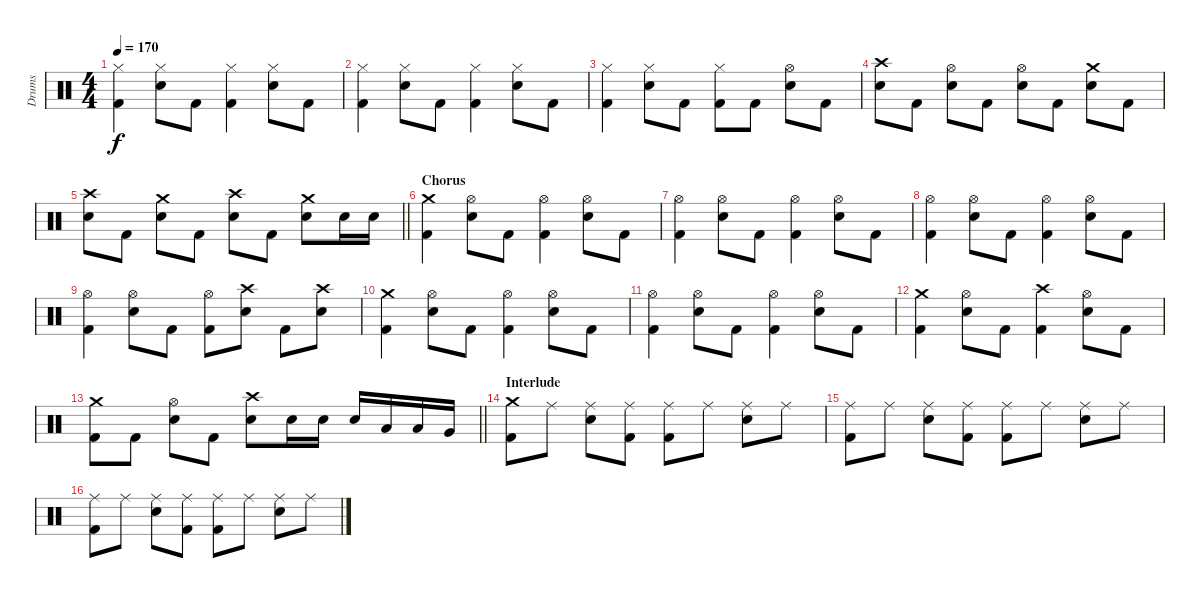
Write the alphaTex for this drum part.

\track ("Drums" "Drums") {instrument percussion}
\staff {score}
\articulation defaults
\ts (4 4)
\tempo 170
\clef neutral
\ks c
("Hi-Hat (closed)" "Kick (hit) 2").4{dy f} ("Hi-Hat (closed)" "Electric Snare (hit)").8 "Kick (hit) 2".8 ("Hi-Hat (closed)" "Kick (hit) 2").4 ("Hi-Hat (closed)" "Electric Snare (hit)").8 "Kick (hit) 2".8 |
("Hi-Hat (closed)" "Kick (hit) 2").4 ("Hi-Hat (closed)" "Electric Snare (hit)").8 "Kick (hit) 2".8 ("Hi-Hat (closed)" "Kick (hit) 2").4 ("Hi-Hat (closed)" "Electric Snare (hit)").8 "Kick (hit) 2".8 |
("Hi-Hat (closed)" "Kick (hit) 2").4 ("Hi-Hat (closed)" "Electric Snare (hit)").8 "Kick (hit) 2".8 ("Hi-Hat (closed)" "Kick (hit) 2").8 "Kick (hit) 2".8 ("Hi-Hat (open)" "Electric Snare (hit)").8 "Kick (hit) 2".8 |
("Crash high (hit)" "Electric Snare (hit)").8 "Kick (hit) 2".8 ("Hi-Hat (open)" "Electric Snare (hit)").8 "Kick (hit) 2".8 ("Hi-Hat (open)" "Electric Snare (hit)").8 "Kick (hit) 2".8 ("Crash medium (hit)" "Electric Snare (hit)").8 "Kick (hit) 2".8 |
\barLineRight lightlight
("Crash high (hit)" "Electric Snare (hit)").8 "Kick (hit) 2".8 ("Crash medium (hit)" "Electric Snare (hit)").8 "Kick (hit) 2".8 ("Crash high (hit)" "Electric Snare (hit)").8 "Kick (hit) 2".8 ("Crash medium (hit)" "Electric Snare (hit)").8 "Electric Snare (hit)".16 "Electric Snare (hit)".16 |
\section ("" "Chorus")
("Crash medium (hit)" "Kick (hit) 2").4 ("Hi-Hat (open)" "Electric Snare (hit)").8 "Kick (hit) 2".8 ("Hi-Hat (open)" "Kick (hit) 2").4 ("Hi-Hat (open)" "Electric Snare (hit)").8 "Kick (hit) 2".8 |
("Hi-Hat (open)" "Kick (hit) 2").4 ("Hi-Hat (open)" "Electric Snare (hit)").8 "Kick (hit) 2".8 ("Hi-Hat (open)" "Kick (hit) 2").4 ("Hi-Hat (open)" "Electric Snare (hit)").8 "Kick (hit) 2".8 |
("Hi-Hat (open)" "Kick (hit) 2").4 ("Hi-Hat (open)" "Electric Snare (hit)").8 "Kick (hit) 2".8 ("Hi-Hat (open)" "Kick (hit) 2").4 ("Hi-Hat (open)" "Electric Snare (hit)").8 "Kick (hit) 2".8 |
("Hi-Hat (open)" "Kick (hit) 2").4 ("Hi-Hat (open)" "Electric Snare (hit)").8 "Kick (hit) 2".8 ("Hi-Hat (open)" "Kick (hit) 2").8 ("Crash high (hit)" "Electric Snare (hit)").8 "Kick (hit) 2".8 ("Crash high (hit)" "Electric Snare (hit)").8 |
("Crash medium (hit)" "Kick (hit) 2").4 ("Hi-Hat (open)" "Electric Snare (hit)").8 "Kick (hit) 2".8 ("Hi-Hat (open)" "Kick (hit) 2").4 ("Hi-Hat (open)" "Electric Snare (hit)").8 "Kick (hit) 2".8 |
("Hi-Hat (open)" "Kick (hit) 2").4 ("Hi-Hat (open)" "Electric Snare (hit)").8 "Kick (hit) 2".8 ("Hi-Hat (open)" "Kick (hit) 2").4 ("Hi-Hat (open)" "Electric Snare (hit)").8 "Kick (hit) 2".8 |
("Crash medium (hit)" "Kick (hit) 2").4 ("Hi-Hat (open)" "Electric Snare (hit)").8 "Kick (hit) 2".8 ("Crash high (hit)" "Kick (hit) 2").4 ("Hi-Hat (open)" "Electric Snare (hit)").8 "Kick (hit) 2".8 |
\barLineRight lightlight
("Crash medium (hit)" "Kick (hit) 2").8 "Kick (hit) 2".8 ("Hi-Hat (open)" "Electric Snare (hit)").8 "Kick (hit) 2".8 ("Crash high (hit)" "Electric Snare (hit)").8 "Electric Snare (hit)".16 "Electric Snare (hit)".16 "Electric Snare (hit)".16 "Low Tom (hit)".16 "Low Tom (hit)".16 "Very Low Tom (hit)".16 |
\section ("" "Interlude")
("Crash medium (hit)" "Kick (hit) 2").8 "Ride (middle)".8 ("Ride (middle)" "Electric Snare (hit)").8 ("Ride (middle)" "Kick (hit) 2").8 ("Ride (middle)" "Kick (hit) 2").8 "Ride (middle)".8 ("Ride (middle)" "Electric Snare (hit)").8 "Ride (middle)".8 |
("Ride (middle)" "Kick (hit) 2").8 "Ride (middle)".8 ("Ride (middle)" "Electric Snare (hit)").8 ("Ride (middle)" "Kick (hit) 2").8 ("Ride (middle)" "Kick (hit) 2").8 "Ride (middle)".8 ("Ride (middle)" "Electric Snare (hit)").8 "Ride (middle)".8 |
("Ride (middle)" "Kick (hit) 2").8 "Ride (middle)".8 ("Ride (middle)" "Electric Snare (hit)").8 ("Ride (middle)" "Kick (hit) 2").8 ("Ride (middle)" "Kick (hit) 2").8 "Ride (middle)".8 ("Ride (middle)" "Electric Snare (hit)").8 "Ride (middle)".8
